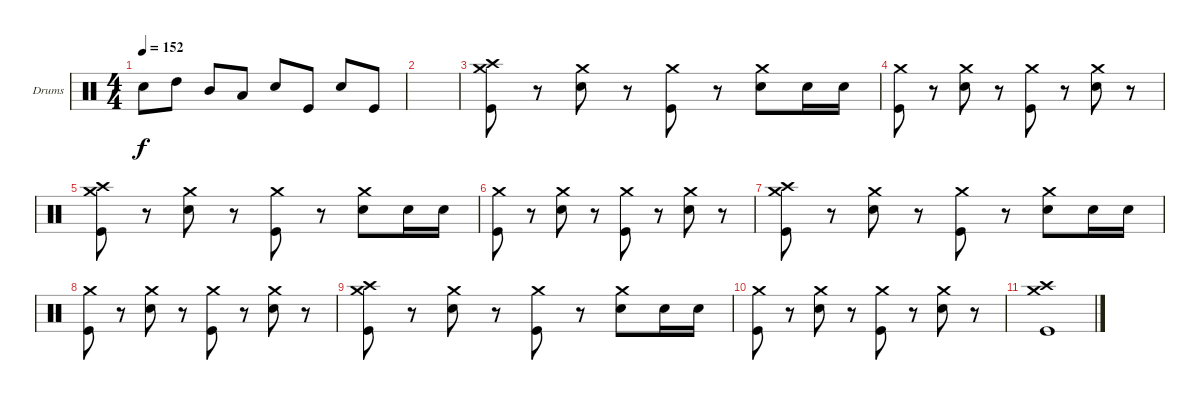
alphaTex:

\defaultSystemsLayout 4
\bracketExtendMode groupsimilarinstruments
\firstSystemTrackNameOrientation horizontal
\otherSystemsTrackNameOrientation horizontal
\track ("Drumkit" "Drums") {instrument percussion}
\staff {score}
\articulation defaults
\ts (4 4)
\tempo 152
\clef neutral
\scale
0.333333
\ks c "Snare (hit) 2".8{dy f} "High Tom (hit)".8 "Mid Tom (hit)".8 "Low Tom (hit)".8 "Snare (hit) 2".8 "Kick (hit)".8 "Snare (hit) 2".8 "Kick (hit)".8
|
\scale
0.333333 |
\scale
0.333333 ("Kick (hit)" "Crash medium (hit)" "Crash high (hit)").8 r.8 ("Snare (hit) 2" "Crash medium (hit)").8 r.8 ("Kick (hit)" "Crash medium (hit)").8 r.8 ("Snare (hit) 2" "Crash medium (hit)").8 "Snare (hit) 2".16 "Snare (hit) 2".16 |
\scale
0.333333 ("Kick (hit)" "Crash medium (hit)").8 r.8 ("Snare (hit) 2" "Crash medium (hit)").8 r.8 ("Kick (hit)" "Crash medium (hit)").8 r.8 ("Snare (hit) 2" "Crash medium (hit)").8 r.8 |
\scale
0.333333 ("Kick (hit)" "Crash medium (hit)" "Crash high (hit)").8 r.8 ("Snare (hit) 2" "Crash medium (hit)").8 r.8 ("Kick (hit)" "Crash medium (hit)").8 r.8 ("Snare (hit) 2" "Crash medium (hit)").8 "Snare (hit) 2".16 "Snare (hit) 2".16 |
("Kick (hit)" "Crash medium (hit)").8 r.8 ("Snare (hit) 2" "Crash medium (hit)").8 r.8 ("Kick (hit)" "Crash medium (hit)").8 r.8 ("Snare (hit) 2" "Crash medium (hit)").8 r.8 |
("Kick (hit)" "Crash medium (hit)" "Crash high (hit)").8 r.8 ("Snare (hit) 2" "Crash medium (hit)").8 r.8 ("Kick (hit)" "Crash medium (hit)").8 r.8 ("Snare (hit) 2" "Crash medium (hit)").8 "Snare (hit) 2".16 "Snare (hit) 2".16 |
("Kick (hit)" "Crash medium (hit)").8 r.8 ("Snare (hit) 2" "Crash medium (hit)").8 r.8 ("Kick (hit)" "Crash medium (hit)").8 r.8 ("Snare (hit) 2" "Crash medium (hit)").8 r.8 |
("Kick (hit)" "Crash medium (hit)" "Crash high (hit)").8 r.8 ("Snare (hit) 2" "Crash medium (hit)").8 r.8 ("Kick (hit)" "Crash medium (hit)").8 r.8 ("Snare (hit) 2" "Crash medium (hit)").8 "Snare (hit) 2".16 "Snare (hit) 2".16 |
("Kick (hit)" "Crash medium (hit)").8 r.8 ("Snare (hit) 2" "Crash medium (hit)").8 r.8 ("Kick (hit)" "Crash medium (hit)").8 r.8 ("Snare (hit) 2" "Crash medium (hit)").8 r.8 |
("Kick (hit)" "Crash medium (hit)" "Crash high (hit)").1
